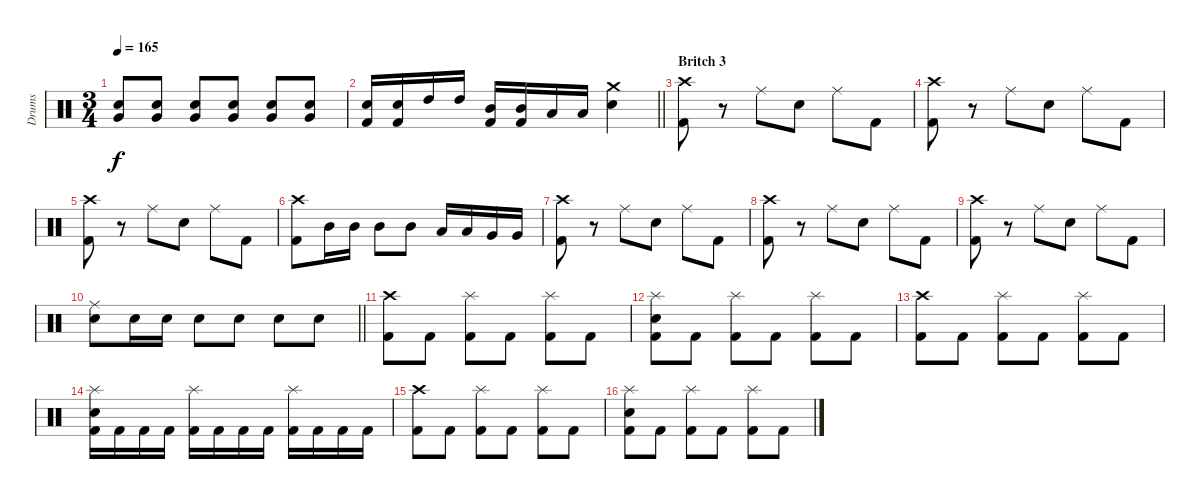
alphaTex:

\track ("Drums" "Drums") {instrument percussion}
\staff {score}
\articulation defaults
\ts (3 4)
\tempo 165
\clef neutral
\ks c
("Electric Snare (hit)" "Very Low Tom (hit)").8{dy f} ("Electric Snare (hit)" "Very Low Tom (hit)").8 ("Electric Snare (hit)" "Very Low Tom (hit)").8 ("Electric Snare (hit)" "Very Low Tom (hit)").8 ("Electric Snare (hit)" "Very Low Tom (hit)").8 ("Electric Snare (hit)" "Very Low Tom (hit)").8 |
\barLineRight lightlight
("Electric Snare (hit)" "Kick (hit) 2").16 ("Electric Snare (hit)" "Kick (hit) 2").16 "High Tom (hit)".16 "High Tom (hit)".16 ("Mid Tom (hit)" "Kick (hit) 2").16 ("Mid Tom (hit)" "Kick (hit) 2").16 "Low Tom (hit)".16 "Low Tom (hit)".16 ("Crash medium (hit)" "Electric Snare (hit)").4 |
\section ("" "Britch 3")
("Crash high (hit)" "Kick (hit) 2").8 r.8 "Ride (middle)".8 "Electric Snare (hit)".8 "Ride (middle)".8 "Kick (hit) 2".8 |
("Crash high (hit)" "Kick (hit) 2").8 r.8 "Ride (middle)".8 "Electric Snare (hit)".8 "Ride (middle)".8 "Kick (hit) 2".8 |
("Crash high (hit)" "Kick (hit) 2").8 r.8 "Ride (middle)".8 "Electric Snare (hit)".8 "Ride (middle)".8 "Kick (hit) 2".8 |
("Crash high (hit)" "Kick (hit) 2").8 "Mid Tom (hit)".16 "Mid Tom (hit)".16 "Mid Tom (hit)".8 "Mid Tom (hit)".8 "Low Tom (hit)".16 "Low Tom (hit)".16 "Very Low Tom (hit)".16 "Very Low Tom (hit)".16 |
("Crash high (hit)" "Kick (hit) 2").8 r.8 "Ride (middle)".8 "Electric Snare (hit)".8 "Ride (middle)".8 "Kick (hit) 2".8 |
("Crash high (hit)" "Kick (hit) 2").8 r.8 "Ride (middle)".8 "Electric Snare (hit)".8 "Ride (middle)".8 "Kick (hit) 2".8 |
("Crash high (hit)" "Kick (hit) 2").8 r.8 "Ride (middle)".8 "Electric Snare (hit)".8 "Ride (middle)".8 "Kick (hit) 2".8 |
\barLineRight lightlight
("Ride (middle)" "Electric Snare (hit)").8 "Electric Snare (hit)".16 "Electric Snare (hit)".16 "Electric Snare (hit)".8 "Electric Snare (hit)".8 "Electric Snare (hit)".8 "Electric Snare (hit)".8 |
\section ("" "")
("Crash high (hit)" "Kick (hit) 2").8 "Kick (hit) 2".8 ("Splash (hit)" "Kick (hit) 2").8 "Kick (hit) 2".8 ("Splash (hit)" "Kick (hit) 2").8 "Kick (hit) 2".8 |
("Splash (hit)" "Electric Snare (hit)" "Kick (hit) 2").8 "Kick (hit) 2".8 ("Splash (hit)" "Kick (hit) 2").8 "Kick (hit) 2".8 ("Splash (hit)" "Kick (hit) 2").8 "Kick (hit) 2".8 |
("Crash high (hit)" "Kick (hit) 2").8 "Kick (hit) 2".8 ("Splash (hit)" "Kick (hit) 2").8 "Kick (hit) 2".8 ("Splash (hit)" "Kick (hit) 2").8 "Kick (hit) 2".8 |
("Splash (hit)" "Electric Snare (hit)" "Kick (hit) 2").16 "Kick (hit) 2".16 "Kick (hit) 2".16 "Kick (hit) 2".16 ("Splash (hit)" "Kick (hit) 2").16 "Kick (hit) 2".16 "Kick (hit) 2".16 "Kick (hit) 2".16 ("Splash (hit)" "Kick (hit) 2").16 "Kick (hit) 2".16 "Kick (hit) 2".16 "Kick (hit) 2".16 |
("Crash high (hit)" "Kick (hit) 2").8 "Kick (hit) 2".8 ("Splash (hit)" "Kick (hit) 2").8 "Kick (hit) 2".8 ("Splash (hit)" "Kick (hit) 2").8 "Kick (hit) 2".8 |
("Splash (hit)" "Electric Snare (hit)" "Kick (hit) 2").8 "Kick (hit) 2".8 ("Splash (hit)" "Kick (hit) 2").8 "Kick (hit) 2".8 ("Splash (hit)" "Kick (hit) 2").8 "Kick (hit) 2".8
